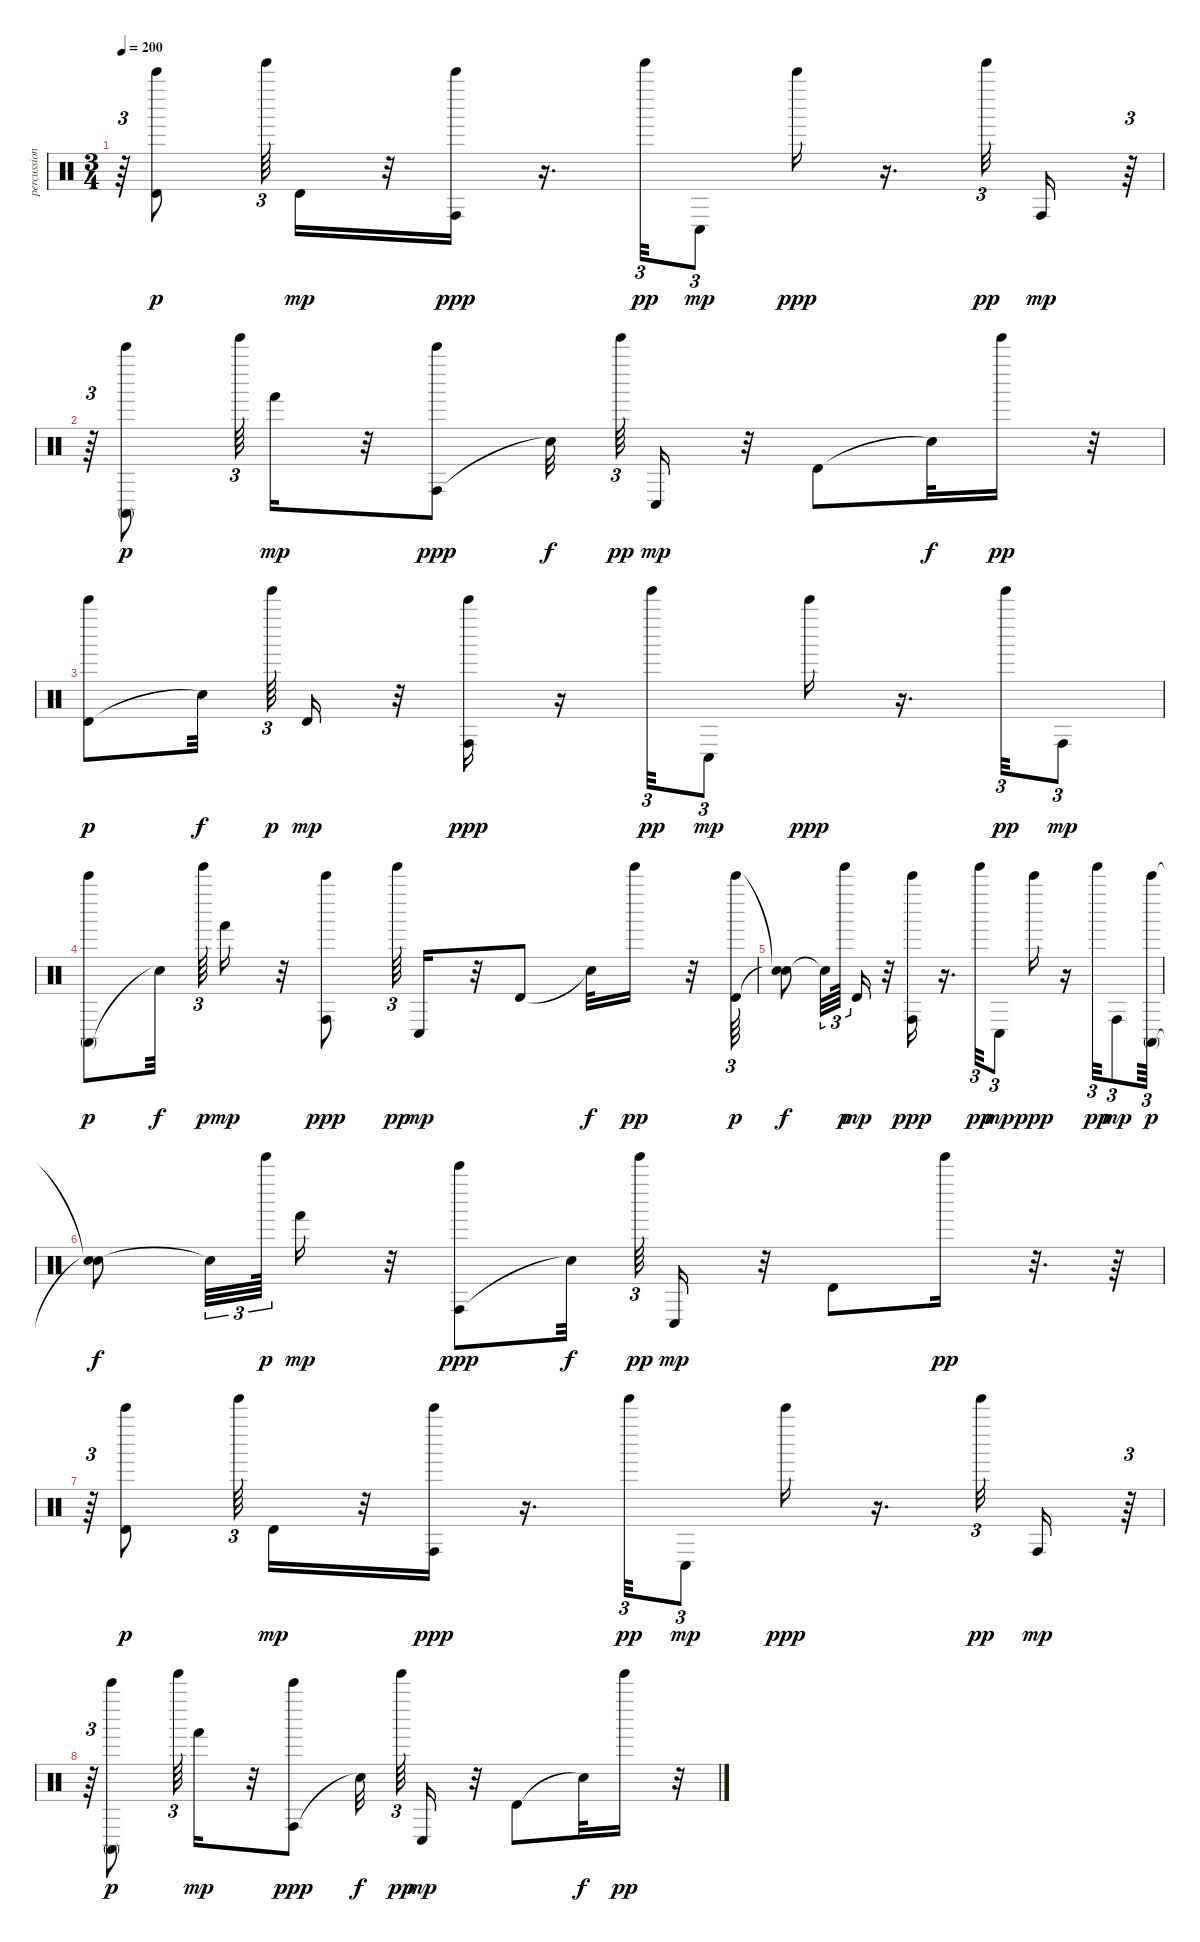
\track ("percussion" "percussion") {instrument percussion}
\staff {score}
\articulation defaults
\ts (3 4)
\tempo 200
\clef neutral
\ks c
r.64{tu (3 2) dy pp} ("Timbale high (hit)" "Bell Tree (hit)").8{dy p} "Tinkle Bell (hit)".64{tu (3 2)} "Timbale high (hit)".16{dy mp} r.32 ("Conga high (hit)" "Bell Tree (hit)").16{dy ppp} r.16{d} "Tinkle Bell (hit)".32{tu (3 2) dy pp} "Conga low (hit)".8{tu (3 2) dy mp} "Bell Tree (hit)".16{dy ppp} r.16{d} "Tinkle Bell (hit)".32{tu (3 2) dy pp} "Conga high (hit)".16{dy mp} r.64{tu (3 2)} |
r.64{tu (3 2)} ("Conga high (mute)" "Bell Tree (hit)").8{dy p} "Tinkle Bell (hit)".64{tu (3 2)} "Hand (hit)".16{dy mp} r.32 ("Conga high (hit)" "Bell Tree (hit)").8{dy ppp} "Snare (hit)"{t}.32{dy f} "Tinkle Bell (hit)".64{tu (3 2) dy pp} "Conga low (hit)".16{dy mp} r.32 "Timbale high (hit)".8 "Snare (hit)"{t}.32{dy f} "Tinkle Bell (hit)".16{dy pp} r.32 |
("Timbale high (hit)" "Bell Tree (hit)").8{dy p} "Snare (hit)"{t}.32{dy f} "Tinkle Bell (hit)".64{tu (3 2) dy p} "Timbale high (hit)".16{dy mp} r.32 ("Conga high (hit)" "Bell Tree (hit)").16{dy ppp} r.16 "Tinkle Bell (hit)".32{tu (3 2) dy pp} "Conga low (hit)".8{tu (3 2) dy mp} "Bell Tree (hit)".16{dy ppp} r.16{d} "Tinkle Bell (hit)".32{tu (3 2) dy pp} "Conga high (hit)".8{tu (3 2) dy mp} |
("Conga high (mute)" "Bell Tree (hit)").8{dy p} "Snare (hit)"{t}.32{dy f} "Tinkle Bell (hit)".64{tu (3 2) dy p} "Hand (hit)".16{dy mp} r.32 ("Conga high (hit)" "Bell Tree (hit)").8{dy ppp} "Tinkle Bell (hit)".64{tu (3 2) dy pp} "Conga low (hit)".16{dy mp} r.32 "Timbale high (hit)".8 "Snare (hit)"{t}.32{dy f} "Tinkle Bell (hit)".16{dy pp} r.32 ("Timbale high (hit)" "Bell Tree (hit)").64{tu (3 2) dy p} |
("Snare (hit)"{t} "Snare (hit)"{t}).8{dy f} "Snare (hit)"{t}.32{tu (3 2)} "Tinkle Bell (hit)".64{tu (3 2) dy p} "Timbale high (hit)".16{dy mp} r.32 ("Conga high (hit)" "Bell Tree (hit)").16{dy ppp} r.16{d} "Tinkle Bell (hit)".32{tu (3 2) dy pp} "Conga low (hit)".8{tu (3 2) dy mp} "Bell Tree (hit)".16{dy ppp} r.16 "Tinkle Bell (hit)".32{tu (3 2) dy pp} "Conga high (hit)".8{tu (3 2) dy mp} ("Conga high (mute)" "Bell Tree (hit)").64{tu (3 2) dy p} |
("Snare (hit)"{t} "Snare (hit)"{t}).8{dy f} "Snare (hit)"{t}.32{tu (3 2)} "Tinkle Bell (hit)".64{tu (3 2) dy p} "Hand (hit)".16{dy mp} r.32 ("Conga high (hit)" "Bell Tree (hit)").8{dy ppp} "Snare (hit)"{t}.32{dy f} "Tinkle Bell (hit)".64{tu (3 2) dy pp} "Conga low (hit)".16{dy mp} r.32 "Timbale high (hit)".8 "Tinkle Bell (hit)".16{dy pp} r.32{d} r.64 |
r.64{tu (3 2)} ("Timbale high (hit)" "Bell Tree (hit)").8{dy p} "Tinkle Bell (hit)".64{tu (3 2)} "Timbale high (hit)".16{dy mp} r.32 ("Conga high (hit)" "Bell Tree (hit)").16{dy ppp} r.16{d} "Tinkle Bell (hit)".32{tu (3 2) dy pp} "Conga low (hit)".8{tu (3 2) dy mp} "Bell Tree (hit)".16{dy ppp} r.16{d} "Tinkle Bell (hit)".32{tu (3 2) dy pp} "Conga high (hit)".16{dy mp} r.64{tu (3 2)} |
r.64{tu (3 2)} ("Conga high (mute)" "Bell Tree (hit)").8{dy p} "Tinkle Bell (hit)".64{tu (3 2)} "Hand (hit)".16{dy mp} r.32 ("Conga high (hit)" "Bell Tree (hit)").8{dy ppp} "Snare (hit)"{t}.32{dy f} "Tinkle Bell (hit)".64{tu (3 2) dy pp} "Conga low (hit)".16{dy mp} r.32 "Timbale high (hit)".8 "Snare (hit)"{t}.32{dy f} "Tinkle Bell (hit)".16{dy pp} r.32
